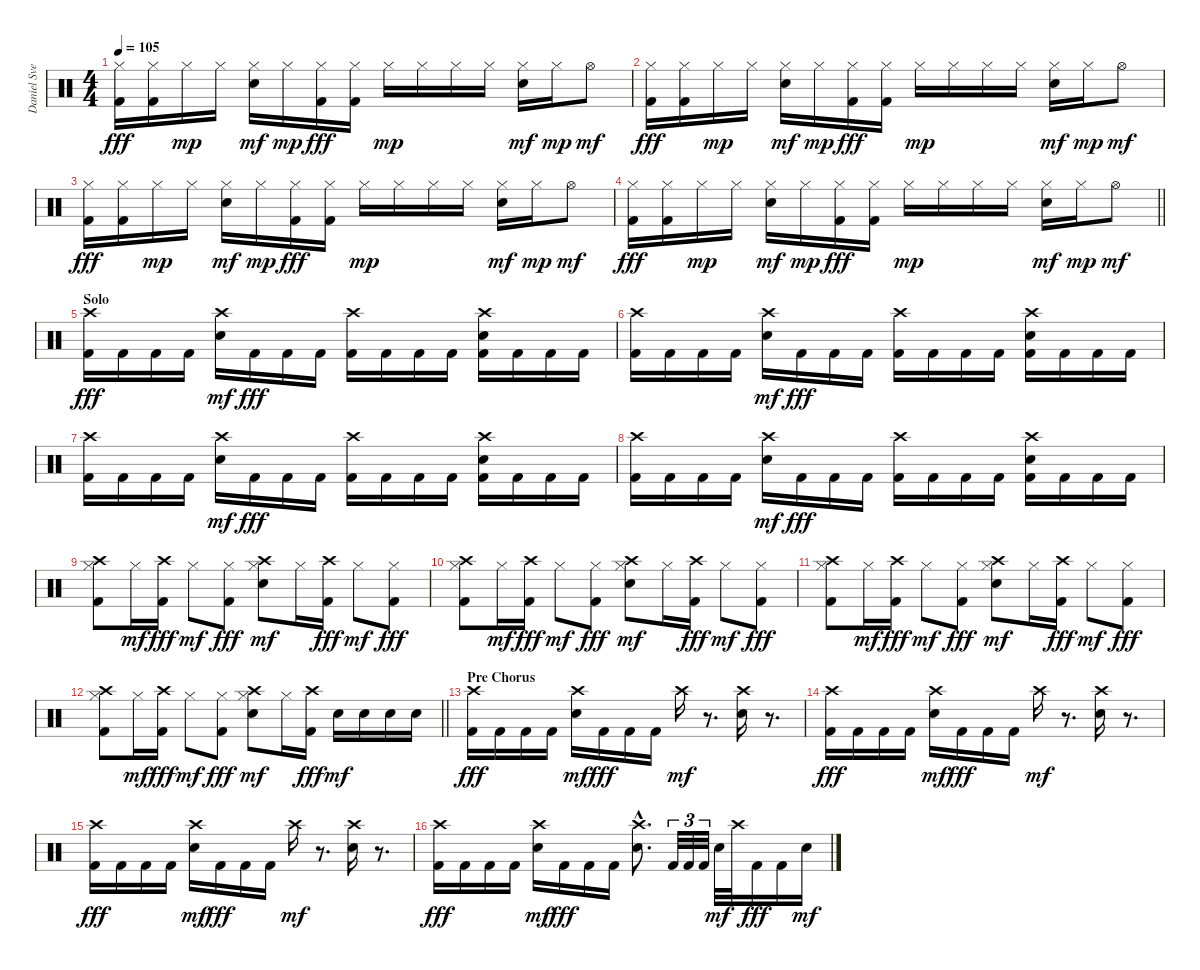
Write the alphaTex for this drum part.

\track ("Daniel Svensson" "Daniel Sve") {instrument percussion}
\staff {score}
\articulation defaults
\ts (4 4)
\tempo 105
\clef neutral
\ks c
("Hi-Hat (closed)" "Kick (hit) 2").16{dy fff} ("Hi-Hat (closed)" "Kick (hit) 2").16 "Hi-Hat (closed)".16{dy mp} "Hi-Hat (closed)".16 ("Hi-Hat (closed)" "Electric Snare (hit)").16{dy mf} "Hi-Hat (closed)".16{dy mp} ("Hi-Hat (closed)" "Kick (hit) 2").16{dy fff} ("Hi-Hat (closed)" "Kick (hit) 2").16 "Hi-Hat (closed)".16{dy mp} "Hi-Hat (closed)".16 "Hi-Hat (closed)".16 "Hi-Hat (closed)".16 ("Hi-Hat (closed)" "Electric Snare (hit)").16{dy mf} "Hi-Hat (closed)".16{dy mp} "Hi-Hat (open)".8{dy mf} |
("Hi-Hat (closed)" "Kick (hit) 2").16{dy fff} ("Hi-Hat (closed)" "Kick (hit) 2").16 "Hi-Hat (closed)".16{dy mp} "Hi-Hat (closed)".16 ("Hi-Hat (closed)" "Electric Snare (hit)").16{dy mf} "Hi-Hat (closed)".16{dy mp} ("Hi-Hat (closed)" "Kick (hit) 2").16{dy fff} ("Hi-Hat (closed)" "Kick (hit) 2").16 "Hi-Hat (closed)".16{dy mp} "Hi-Hat (closed)".16 "Hi-Hat (closed)".16 "Hi-Hat (closed)".16 ("Hi-Hat (closed)" "Electric Snare (hit)").16{dy mf} "Hi-Hat (closed)".16{dy mp} "Hi-Hat (open)".8{dy mf} |
("Hi-Hat (closed)" "Kick (hit) 2").16{dy fff} ("Hi-Hat (closed)" "Kick (hit) 2").16 "Hi-Hat (closed)".16{dy mp} "Hi-Hat (closed)".16 ("Hi-Hat (closed)" "Electric Snare (hit)").16{dy mf} "Hi-Hat (closed)".16{dy mp} ("Hi-Hat (closed)" "Kick (hit) 2").16{dy fff} ("Hi-Hat (closed)" "Kick (hit) 2").16 "Hi-Hat (closed)".16{dy mp} "Hi-Hat (closed)".16 "Hi-Hat (closed)".16 "Hi-Hat (closed)".16 ("Hi-Hat (closed)" "Electric Snare (hit)").16{dy mf} "Hi-Hat (closed)".16{dy mp} "Hi-Hat (open)".8{dy mf} |
\barLineRight lightlight
("Hi-Hat (closed)" "Kick (hit) 2").16{dy fff} ("Hi-Hat (closed)" "Kick (hit) 2").16 "Hi-Hat (closed)".16{dy mp} "Hi-Hat (closed)".16 ("Hi-Hat (closed)" "Electric Snare (hit)").16{dy mf} "Hi-Hat (closed)".16{dy mp} ("Hi-Hat (closed)" "Kick (hit) 2").16{dy fff} ("Hi-Hat (closed)" "Kick (hit) 2").16 "Hi-Hat (closed)".16{dy mp} "Hi-Hat (closed)".16 "Hi-Hat (closed)".16 "Hi-Hat (closed)".16 ("Hi-Hat (closed)" "Electric Snare (hit)").16{dy mf} "Hi-Hat (closed)".16{dy mp} "Hi-Hat (open)".8{dy mf} |
\section ("" "Solo")
("Crash high (hit)" "Kick (hit) 2").16{dy fff} "Kick (hit) 2".16 "Kick (hit) 2".16 "Kick (hit) 2".16 ("Crash high (hit)" "Electric Snare (hit)").16{dy mf} "Kick (hit) 2".16{dy fff} "Kick (hit) 2".16 "Kick (hit) 2".16 ("Crash high (hit)" "Kick (hit) 2").16 "Kick (hit) 2".16 "Kick (hit) 2".16 "Kick (hit) 2".16 ("Crash high (hit)" "Electric Snare (hit)" "Kick (hit) 2").16 "Kick (hit) 2".16 "Kick (hit) 2".16 "Kick (hit) 2".16 |
("Crash high (hit)" "Kick (hit) 2").16 "Kick (hit) 2".16 "Kick (hit) 2".16 "Kick (hit) 2".16 ("Crash high (hit)" "Electric Snare (hit)").16{dy mf} "Kick (hit) 2".16{dy fff} "Kick (hit) 2".16 "Kick (hit) 2".16 ("Crash high (hit)" "Kick (hit) 2").16 "Kick (hit) 2".16 "Kick (hit) 2".16 "Kick (hit) 2".16 ("Crash high (hit)" "Electric Snare (hit)" "Kick (hit) 2").16 "Kick (hit) 2".16 "Kick (hit) 2".16 "Kick (hit) 2".16 |
("Crash high (hit)" "Kick (hit) 2").16 "Kick (hit) 2".16 "Kick (hit) 2".16 "Kick (hit) 2".16 ("Crash high (hit)" "Electric Snare (hit)").16{dy mf} "Kick (hit) 2".16{dy fff} "Kick (hit) 2".16 "Kick (hit) 2".16 ("Crash high (hit)" "Kick (hit) 2").16 "Kick (hit) 2".16 "Kick (hit) 2".16 "Kick (hit) 2".16 ("Crash high (hit)" "Electric Snare (hit)" "Kick (hit) 2").16 "Kick (hit) 2".16 "Kick (hit) 2".16 "Kick (hit) 2".16 |
("Crash high (hit)" "Kick (hit) 2").16 "Kick (hit) 2".16 "Kick (hit) 2".16 "Kick (hit) 2".16 ("Crash high (hit)" "Electric Snare (hit)").16{dy mf} "Kick (hit) 2".16{dy fff} "Kick (hit) 2".16 "Kick (hit) 2".16 ("Crash high (hit)" "Kick (hit) 2").16 "Kick (hit) 2".16 "Kick (hit) 2".16 "Kick (hit) 2".16 ("Crash high (hit)" "Electric Snare (hit)" "Kick (hit) 2").16 "Kick (hit) 2".16 "Kick (hit) 2".16 "Kick (hit) 2".16 |
("Crash high (hit)" "Hi-Hat (closed)" "Kick (hit) 2").8 "Hi-Hat (closed)".16{dy mf} ("Crash high (hit)" "Kick (hit) 2").16{dy fff} "Hi-Hat (closed)".8{dy mf} ("Hi-Hat (closed)" "Kick (hit) 2").8{dy fff} ("Crash high (hit)" "Hi-Hat (closed)" "Electric Snare (hit)").8{dy mf} "Hi-Hat (closed)".16 ("Crash high (hit)" "Kick (hit) 2").16{dy fff} "Hi-Hat (closed)".8{dy mf} ("Hi-Hat (closed)" "Kick (hit) 2").8{dy fff} |
("Crash high (hit)" "Hi-Hat (closed)" "Kick (hit) 2").8 "Hi-Hat (closed)".16{dy mf} ("Crash high (hit)" "Kick (hit) 2").16{dy fff} "Hi-Hat (closed)".8{dy mf} ("Hi-Hat (closed)" "Kick (hit) 2").8{dy fff} ("Crash high (hit)" "Hi-Hat (closed)" "Electric Snare (hit)").8{dy mf} "Hi-Hat (closed)".16 ("Crash high (hit)" "Kick (hit) 2").16{dy fff} "Hi-Hat (closed)".8{dy mf} ("Hi-Hat (closed)" "Kick (hit) 2").8{dy fff} |
("Crash high (hit)" "Hi-Hat (closed)" "Kick (hit) 2").8 "Hi-Hat (closed)".16{dy mf} ("Crash high (hit)" "Kick (hit) 2").16{dy fff} "Hi-Hat (closed)".8{dy mf} ("Hi-Hat (closed)" "Kick (hit) 2").8{dy fff} ("Crash high (hit)" "Hi-Hat (closed)" "Electric Snare (hit)").8{dy mf} "Hi-Hat (closed)".16 ("Crash high (hit)" "Kick (hit) 2").16{dy fff} "Hi-Hat (closed)".8{dy mf} ("Hi-Hat (closed)" "Kick (hit) 2").8{dy fff} |
\barLineRight lightlight
("Crash high (hit)" "Hi-Hat (closed)" "Kick (hit) 2").8 "Hi-Hat (closed)".16{dy mf} ("Crash high (hit)" "Kick (hit) 2").16{dy fff} "Hi-Hat (closed)".8{dy mf} ("Hi-Hat (closed)" "Kick (hit) 2").8{dy fff} ("Crash high (hit)" "Hi-Hat (closed)" "Electric Snare (hit)").8{dy mf} "Hi-Hat (closed)".16 ("Crash high (hit)" "Kick (hit) 2").16{dy fff} "Electric Snare (hit)".16{dy mf} "Electric Snare (hit)".16 "Electric Snare (hit)".16 "Electric Snare (hit)".16 |
\section ("" "Pre Chorus")
("Crash high (hit)" "Kick (hit) 2").16{dy fff} "Kick (hit) 2".16 "Kick (hit) 2".16 "Kick (hit) 2".16 ("Crash high (hit)" "Electric Snare (hit)").16{dy mf} "Kick (hit) 2".16{dy fff} "Kick (hit) 2".16 "Kick (hit) 2".16 "Crash high (hit)".16{dy mf} r.8{d} ("Crash high (hit)" "Electric Snare (hit)").16 r.8{d} |
("Crash high (hit)" "Kick (hit) 2").16{dy fff} "Kick (hit) 2".16 "Kick (hit) 2".16 "Kick (hit) 2".16 ("Crash high (hit)" "Electric Snare (hit)").16{dy mf} "Kick (hit) 2".16{dy fff} "Kick (hit) 2".16 "Kick (hit) 2".16 "Crash high (hit)".16{dy mf} r.8{d} ("Crash high (hit)" "Electric Snare (hit)").16 r.8{d} |
("Crash high (hit)" "Kick (hit) 2").16{dy fff} "Kick (hit) 2".16 "Kick (hit) 2".16 "Kick (hit) 2".16 ("Crash high (hit)" "Electric Snare (hit)").16{dy mf} "Kick (hit) 2".16{dy fff} "Kick (hit) 2".16 "Kick (hit) 2".16 "Crash high (hit)".16{dy mf} r.8{d} ("Crash high (hit)" "Electric Snare (hit)").16 r.8{d} |
("Crash high (hit)" "Kick (hit) 2").16{dy fff} "Kick (hit) 2".16 "Kick (hit) 2".16 "Kick (hit) 2".16 ("Crash high (hit)" "Electric Snare (hit)").16{dy mf} "Kick (hit) 2".16{dy fff} "Kick (hit) 2".16 "Kick (hit) 2".16 ("Crash high (hit)"{hac} "Electric Snare (hit)"{hac}).8{d} "Kick (hit) 2".32{tu (3 2)} "Kick (hit) 2".32{tu (3 2)} "Kick (hit) 2".32{tu (3 2)} "Electric Snare (hit)".32{dy mf} "Crash high (hit)".32 "Kick (hit) 2".16{dy fff} "Kick (hit) 2".16 "Electric Snare (hit)".16{dy mf}
